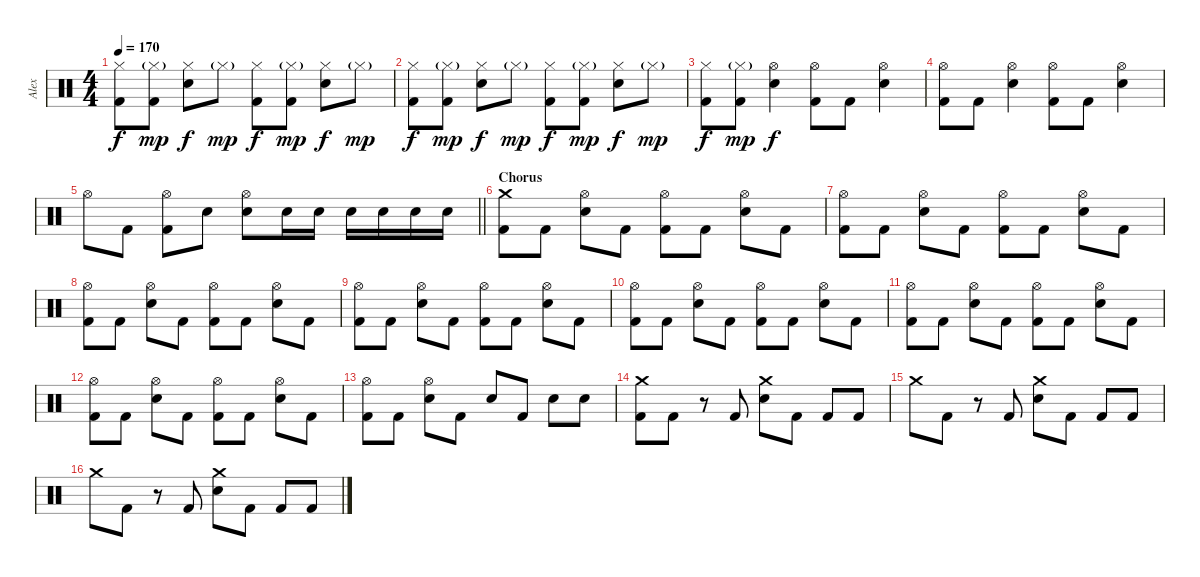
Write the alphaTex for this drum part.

\track ("Alex" "Alex") {instrument percussion}
\staff {score}
\articulation defaults
\ts (4 4)
\tempo 170
\clef neutral
\ks c
("Hi-Hat (closed)" "Kick (hit) 2").8{dy f} ("Hi-Hat (closed)"{g} "Kick (hit) 2").8{dy mp} ("Hi-Hat (closed)" "Electric Snare (hit)").8{dy f} "Hi-Hat (closed)"{g}.8{dy mp} ("Hi-Hat (closed)" "Kick (hit) 2").8{dy f} ("Hi-Hat (closed)"{g} "Kick (hit) 2").8{dy mp} ("Hi-Hat (closed)" "Electric Snare (hit)").8{dy f} "Hi-Hat (closed)"{g}.8{dy mp} |
("Hi-Hat (closed)" "Kick (hit) 2").8{dy f} ("Hi-Hat (closed)"{g} "Kick (hit) 2").8{dy mp} ("Hi-Hat (closed)" "Electric Snare (hit)").8{dy f} "Hi-Hat (closed)"{g}.8{dy mp} ("Hi-Hat (closed)" "Kick (hit) 2").8{dy f} ("Hi-Hat (closed)"{g} "Kick (hit) 2").8{dy mp} ("Hi-Hat (closed)" "Electric Snare (hit)").8{dy f} "Hi-Hat (closed)"{g}.8{dy mp} |
("Hi-Hat (closed)" "Kick (hit) 2").8{dy f} ("Hi-Hat (closed)"{g} "Kick (hit) 2").8{dy mp} ("Hi-Hat (open)" "Electric Snare (hit)").4{dy f} ("Hi-Hat (open)" "Kick (hit) 2").8 "Kick (hit) 2".8 ("Hi-Hat (open)" "Electric Snare (hit)").4 |
("Hi-Hat (open)" "Kick (hit) 2").8 "Kick (hit) 2".8 ("Hi-Hat (open)" "Electric Snare (hit)").4 ("Hi-Hat (open)" "Kick (hit) 2").8 "Kick (hit) 2".8 ("Hi-Hat (open)" "Electric Snare (hit)").4 |
\barLineRight lightlight "Hi-Hat (open)".8 "Kick (hit) 2".8
("Hi-Hat (open)" "Kick (hit) 2").8 "Electric Snare (hit)".8 ("Hi-Hat (open)" "Electric Snare (hit)").8 "Electric Snare (hit)".16 "Electric Snare (hit)".16 "Electric Snare (hit)".16 "Electric Snare (hit)".16 "Electric Snare (hit)".16 "Electric Snare (hit)".16 |
\section ("" "Chorus")
("Crash medium (hit)" "Kick (hit) 2").8 "Kick (hit) 2".8 ("Hi-Hat (open)" "Electric Snare (hit)").8 "Kick (hit) 2".8 ("Hi-Hat (open)" "Kick (hit) 2").8 "Kick (hit) 2".8 ("Hi-Hat (open)" "Electric Snare (hit)").8 "Kick (hit) 2".8 |
("Hi-Hat (open)" "Kick (hit) 2").8 "Kick (hit) 2".8 ("Hi-Hat (open)" "Electric Snare (hit)").8 "Kick (hit) 2".8 ("Hi-Hat (open)" "Kick (hit) 2").8 "Kick (hit) 2".8 ("Hi-Hat (open)" "Electric Snare (hit)").8 "Kick (hit) 2".8 |
("Hi-Hat (open)" "Kick (hit) 2").8 "Kick (hit) 2".8 ("Hi-Hat (open)" "Electric Snare (hit)").8 "Kick (hit) 2".8 ("Hi-Hat (open)" "Kick (hit) 2").8 "Kick (hit) 2".8 ("Hi-Hat (open)" "Electric Snare (hit)").8 "Kick (hit) 2".8 |
("Hi-Hat (open)" "Kick (hit) 2").8 "Kick (hit) 2".8 ("Hi-Hat (open)" "Electric Snare (hit)").8 "Kick (hit) 2".8 ("Hi-Hat (open)" "Kick (hit) 2").8 "Kick (hit) 2".8 ("Hi-Hat (open)" "Electric Snare (hit)").8 "Kick (hit) 2".8 |
("Hi-Hat (open)" "Kick (hit) 2").8 "Kick (hit) 2".8 ("Hi-Hat (open)" "Electric Snare (hit)").8 "Kick (hit) 2".8 ("Hi-Hat (open)" "Kick (hit) 2").8 "Kick (hit) 2".8 ("Hi-Hat (open)" "Electric Snare (hit)").8 "Kick (hit) 2".8 |
("Hi-Hat (open)" "Kick (hit) 2").8 "Kick (hit) 2".8 ("Hi-Hat (open)" "Electric Snare (hit)").8 "Kick (hit) 2".8 ("Hi-Hat (open)" "Kick (hit) 2").8 "Kick (hit) 2".8 ("Hi-Hat (open)" "Electric Snare (hit)").8 "Kick (hit) 2".8 |
("Hi-Hat (open)" "Kick (hit) 2").8 "Kick (hit) 2".8 ("Hi-Hat (open)" "Electric Snare (hit)").8 "Kick (hit) 2".8 ("Hi-Hat (open)" "Kick (hit) 2").8 "Kick (hit) 2".8 ("Hi-Hat (open)" "Electric Snare (hit)").8 "Kick (hit) 2".8 |
("Hi-Hat (open)" "Kick (hit) 2").8 "Kick (hit) 2".8 ("Hi-Hat (open)" "Electric Snare (hit)").8 "Kick (hit) 2".8 "Electric Snare (hit)".8 "Kick (hit) 2".8 "Electric Snare (hit)".8 "Electric Snare (hit)".8 |
("Crash medium (hit)" "Kick (hit) 2").8 "Kick (hit) 2".8 r.8 "Kick (hit) 2".8 ("Crash medium (hit)" "Electric Snare (hit)").8 "Kick (hit) 2".8 "Kick (hit) 2".8 "Kick (hit) 2".8 |
"Crash medium (hit)".8 "Kick (hit) 2".8 r.8 "Kick (hit) 2".8 ("Crash medium (hit)" "Electric Snare (hit)").8 "Kick (hit) 2".8 "Kick (hit) 2".8 "Kick (hit) 2".8 |
"Crash medium (hit)".8 "Kick (hit) 2".8 r.8 "Kick (hit) 2".8 ("Crash medium (hit)" "Electric Snare (hit)").8 "Kick (hit) 2".8 "Kick (hit) 2".8 "Kick (hit) 2".8
